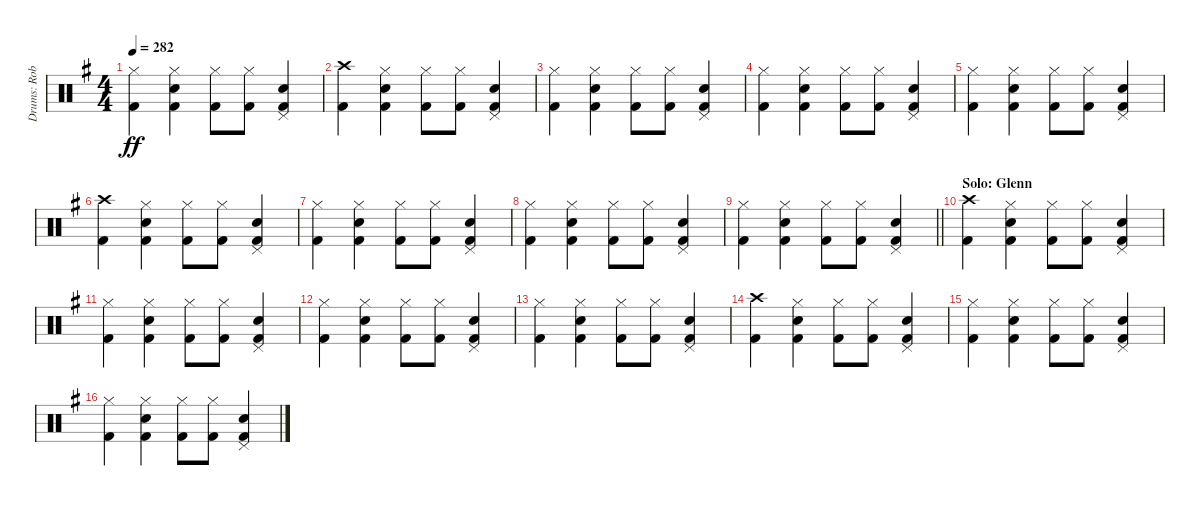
\track ("Drums: Rob" "Drums: Rob") {instrument percussion}
\staff {score}
\articulation defaults
\ts (4 4)
\tempo 282
\clef neutral
\ks g
("Hi-Hat (closed)" "Kick (hit) 2").4{dy ff} ("Hi-Hat (closed)" "Snare (hit) 2" "Kick (hit) 2").4 ("Hi-Hat (closed)" "Kick (hit) 2").8 ("Hi-Hat (closed)" "Kick (hit) 2").8 ("Pedal Hi-Hat (hit)" "Snare (hit) 2" "Kick (hit) 2").4 |
("Crash high (hit)" "Kick (hit) 2").4 ("Hi-Hat (closed)" "Snare (hit) 2" "Kick (hit) 2").4 ("Hi-Hat (closed)" "Kick (hit) 2").8 ("Hi-Hat (closed)" "Kick (hit) 2").8 ("Pedal Hi-Hat (hit)" "Snare (hit) 2" "Kick (hit) 2").4 |
("Hi-Hat (closed)" "Kick (hit) 2").4 ("Hi-Hat (closed)" "Snare (hit) 2" "Kick (hit) 2").4 ("Hi-Hat (closed)" "Kick (hit) 2").8 ("Hi-Hat (closed)" "Kick (hit) 2").8 ("Pedal Hi-Hat (hit)" "Snare (hit) 2" "Kick (hit) 2").4 |
("Hi-Hat (closed)" "Kick (hit) 2").4 ("Hi-Hat (closed)" "Snare (hit) 2" "Kick (hit) 2").4 ("Hi-Hat (closed)" "Kick (hit) 2").8 ("Hi-Hat (closed)" "Kick (hit) 2").8 ("Pedal Hi-Hat (hit)" "Snare (hit) 2" "Kick (hit) 2").4 |
("Hi-Hat (closed)" "Kick (hit) 2").4 ("Hi-Hat (closed)" "Snare (hit) 2" "Kick (hit) 2").4 ("Hi-Hat (closed)" "Kick (hit) 2").8 ("Hi-Hat (closed)" "Kick (hit) 2").8 ("Pedal Hi-Hat (hit)" "Snare (hit) 2" "Kick (hit) 2").4 |
("Crash high (hit)" "Kick (hit) 2").4 ("Hi-Hat (closed)" "Snare (hit) 2" "Kick (hit) 2").4 ("Hi-Hat (closed)" "Kick (hit) 2").8 ("Hi-Hat (closed)" "Kick (hit) 2").8 ("Pedal Hi-Hat (hit)" "Snare (hit) 2" "Kick (hit) 2").4 |
("Hi-Hat (closed)" "Kick (hit) 2").4 ("Hi-Hat (closed)" "Snare (hit) 2" "Kick (hit) 2").4 ("Hi-Hat (closed)" "Kick (hit) 2").8 ("Hi-Hat (closed)" "Kick (hit) 2").8 ("Pedal Hi-Hat (hit)" "Snare (hit) 2" "Kick (hit) 2").4 |
("Hi-Hat (closed)" "Kick (hit) 2").4 ("Hi-Hat (closed)" "Snare (hit) 2" "Kick (hit) 2").4 ("Hi-Hat (closed)" "Kick (hit) 2").8 ("Hi-Hat (closed)" "Kick (hit) 2").8 ("Pedal Hi-Hat (hit)" "Snare (hit) 2" "Kick (hit) 2").4 |
\barLineRight lightlight
("Hi-Hat (closed)" "Kick (hit) 2").4 ("Hi-Hat (closed)" "Snare (hit) 2" "Kick (hit) 2").4 ("Hi-Hat (closed)" "Kick (hit) 2").8 ("Hi-Hat (closed)" "Kick (hit) 2").8 ("Pedal Hi-Hat (hit)" "Snare (hit) 2" "Kick (hit) 2").4 |
\section ("" "Solo: Glenn")
("Crash high (hit)" "Kick (hit) 2").4 ("Hi-Hat (closed)" "Snare (hit) 2" "Kick (hit) 2").4 ("Hi-Hat (closed)" "Kick (hit) 2").8 ("Hi-Hat (closed)" "Kick (hit) 2").8 ("Pedal Hi-Hat (hit)" "Snare (hit) 2" "Kick (hit) 2").4 |
("Hi-Hat (closed)" "Kick (hit) 2").4 ("Hi-Hat (closed)" "Snare (hit) 2" "Kick (hit) 2").4 ("Hi-Hat (closed)" "Kick (hit) 2").8 ("Hi-Hat (closed)" "Kick (hit) 2").8 ("Pedal Hi-Hat (hit)" "Snare (hit) 2" "Kick (hit) 2").4 |
("Hi-Hat (closed)" "Kick (hit) 2").4 ("Hi-Hat (closed)" "Snare (hit) 2" "Kick (hit) 2").4 ("Hi-Hat (closed)" "Kick (hit) 2").8 ("Hi-Hat (closed)" "Kick (hit) 2").8 ("Pedal Hi-Hat (hit)" "Snare (hit) 2" "Kick (hit) 2").4 |
("Hi-Hat (closed)" "Kick (hit) 2").4 ("Hi-Hat (closed)" "Snare (hit) 2" "Kick (hit) 2").4 ("Hi-Hat (closed)" "Kick (hit) 2").8 ("Hi-Hat (closed)" "Kick (hit) 2").8 ("Pedal Hi-Hat (hit)" "Snare (hit) 2" "Kick (hit) 2").4 |
("Crash high (hit)" "Kick (hit) 2").4 ("Hi-Hat (closed)" "Snare (hit) 2" "Kick (hit) 2").4 ("Hi-Hat (closed)" "Kick (hit) 2").8 ("Hi-Hat (closed)" "Kick (hit) 2").8 ("Pedal Hi-Hat (hit)" "Snare (hit) 2" "Kick (hit) 2").4 |
("Hi-Hat (closed)" "Kick (hit) 2").4 ("Hi-Hat (closed)" "Snare (hit) 2" "Kick (hit) 2").4 ("Hi-Hat (closed)" "Kick (hit) 2").8 ("Hi-Hat (closed)" "Kick (hit) 2").8 ("Pedal Hi-Hat (hit)" "Snare (hit) 2" "Kick (hit) 2").4 |
("Hi-Hat (closed)" "Kick (hit) 2").4 ("Hi-Hat (closed)" "Snare (hit) 2" "Kick (hit) 2").4 ("Hi-Hat (closed)" "Kick (hit) 2").8 ("Hi-Hat (closed)" "Kick (hit) 2").8 ("Pedal Hi-Hat (hit)" "Snare (hit) 2" "Kick (hit) 2").4
